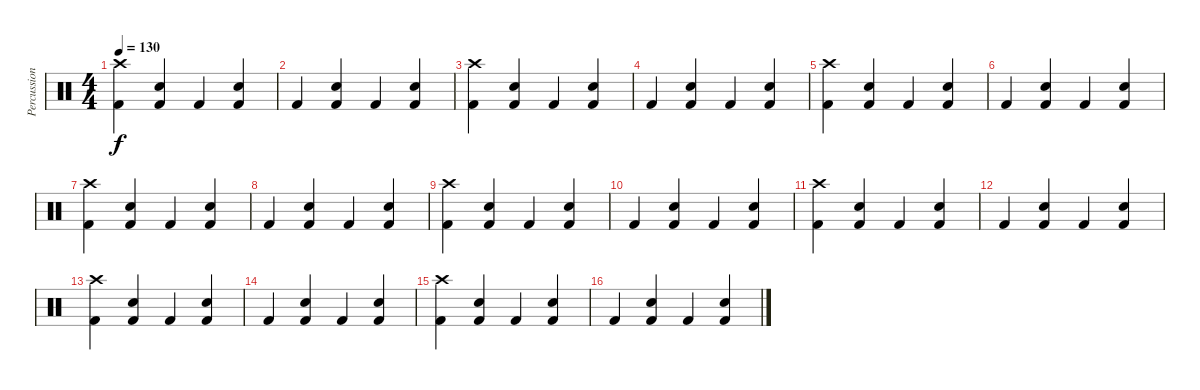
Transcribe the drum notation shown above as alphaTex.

\track ("Percussion" "Percussion") {instrument percussion}
\staff {score}
\articulation defaults
\ts (4 4)
\tempo 130
\clef neutral
\ks c
("Crash high (hit)" "Kick (hit) 2").4{dy f} ("Kick (hit) 2" "Snare (hit) 2").4 "Kick (hit) 2".4 ("Kick (hit) 2" "Snare (hit) 2").4 |
"Kick (hit) 2".4 ("Kick (hit) 2" "Snare (hit) 2").4 "Kick (hit) 2".4 ("Kick (hit) 2" "Snare (hit) 2").4 |
("Crash high (hit)" "Kick (hit) 2").4 ("Kick (hit) 2" "Snare (hit) 2").4 "Kick (hit) 2".4 ("Kick (hit) 2" "Snare (hit) 2").4 |
"Kick (hit) 2".4 ("Kick (hit) 2" "Snare (hit) 2").4 "Kick (hit) 2".4 ("Kick (hit) 2" "Snare (hit) 2").4 |
("Crash high (hit)" "Kick (hit) 2").4 ("Kick (hit) 2" "Snare (hit) 2").4 "Kick (hit) 2".4 ("Kick (hit) 2" "Snare (hit) 2").4 |
"Kick (hit) 2".4 ("Kick (hit) 2" "Snare (hit) 2").4 "Kick (hit) 2".4 ("Kick (hit) 2" "Snare (hit) 2").4 |
("Crash high (hit)" "Kick (hit) 2").4 ("Kick (hit) 2" "Snare (hit) 2").4 "Kick (hit) 2".4 ("Kick (hit) 2" "Snare (hit) 2").4 |
"Kick (hit) 2".4 ("Kick (hit) 2" "Snare (hit) 2").4 "Kick (hit) 2".4 ("Kick (hit) 2" "Snare (hit) 2").4 |
("Crash high (hit)" "Kick (hit) 2").4 ("Kick (hit) 2" "Snare (hit) 2").4 "Kick (hit) 2".4 ("Kick (hit) 2" "Snare (hit) 2").4 |
"Kick (hit) 2".4 ("Kick (hit) 2" "Snare (hit) 2").4 "Kick (hit) 2".4 ("Kick (hit) 2" "Snare (hit) 2").4 |
("Crash high (hit)" "Kick (hit) 2").4 ("Kick (hit) 2" "Snare (hit) 2").4 "Kick (hit) 2".4 ("Kick (hit) 2" "Snare (hit) 2").4 |
"Kick (hit) 2".4 ("Kick (hit) 2" "Snare (hit) 2").4 "Kick (hit) 2".4 ("Kick (hit) 2" "Snare (hit) 2").4 |
("Crash high (hit)" "Kick (hit) 2").4 ("Kick (hit) 2" "Snare (hit) 2").4 "Kick (hit) 2".4 ("Kick (hit) 2" "Snare (hit) 2").4 |
"Kick (hit) 2".4 ("Kick (hit) 2" "Snare (hit) 2").4 "Kick (hit) 2".4 ("Kick (hit) 2" "Snare (hit) 2").4 |
("Crash high (hit)" "Kick (hit) 2").4 ("Kick (hit) 2" "Snare (hit) 2").4 "Kick (hit) 2".4 ("Kick (hit) 2" "Snare (hit) 2").4 |
"Kick (hit) 2".4 ("Kick (hit) 2" "Snare (hit) 2").4 "Kick (hit) 2".4 ("Kick (hit) 2" "Snare (hit) 2").4
